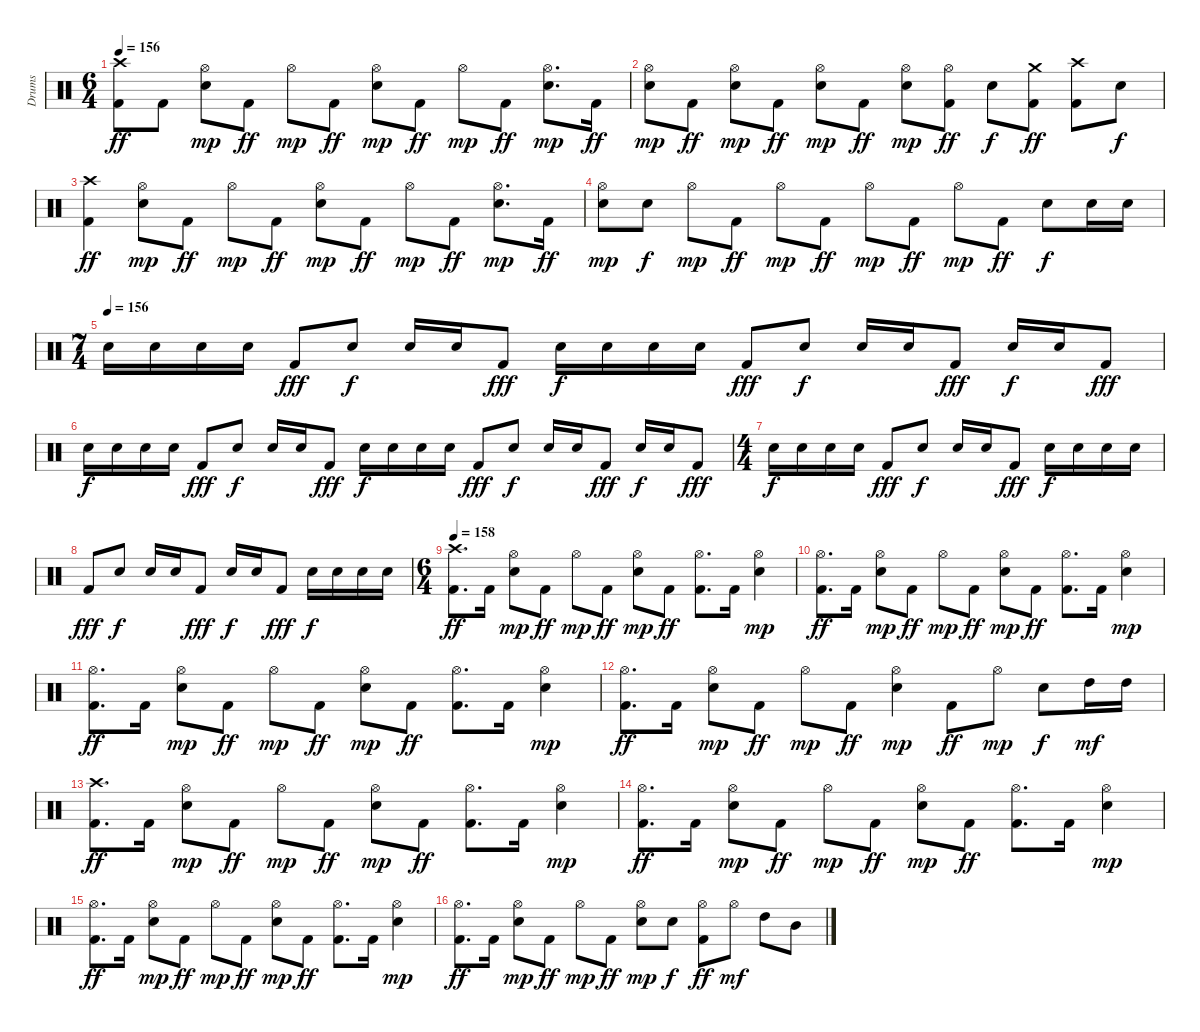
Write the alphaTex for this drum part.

\track ("Drums" "Drums") {instrument percussion}
\staff {score}
\articulation defaults
\ts (6 4)
\tempo 156
\clef neutral
\ks c
("Crash high (hit)" "Kick (hit) 2").8{dy ff} "Kick (hit) 2".8 ("Hi-Hat (open)" "Electric Snare (hit)").8{dy mp} "Kick (hit) 2".8{dy ff} "Hi-Hat (open)".8{dy mp} "Kick (hit) 2".8{dy ff} ("Hi-Hat (open)" "Electric Snare (hit)").8{dy mp} "Kick (hit) 2".8{dy ff} "Hi-Hat (open)".8{dy mp} "Kick (hit) 2".8{dy ff} ("Hi-Hat (open)" "Electric Snare (hit)").8{d dy mp} "Kick (hit) 2".16{dy ff} |
("Hi-Hat (open)" "Electric Snare (hit)").8{dy mp} "Kick (hit) 2".8{dy ff} ("Hi-Hat (open)" "Electric Snare (hit)").8{dy mp} "Kick (hit) 2".8{dy ff} ("Hi-Hat (open)" "Electric Snare (hit)").8{dy mp} "Kick (hit) 2".8{dy ff} ("Hi-Hat (open)" "Electric Snare (hit)").8{dy mp} ("Hi-Hat (open)" "Kick (hit) 2").8{dy ff} "Electric Snare (hit)".8{dy f} ("Crash medium (hit)" "Kick (hit) 2").8{dy ff} ("Crash high (hit)" "Kick (hit) 2").8 "Electric Snare (hit)".8{dy f} |
("Crash high (hit)" "Kick (hit) 2").4{dy ff} ("Hi-Hat (open)" "Electric Snare (hit)").8{dy mp} "Kick (hit) 2".8{dy ff} "Hi-Hat (open)".8{dy mp} "Kick (hit) 2".8{dy ff} ("Hi-Hat (open)" "Electric Snare (hit)").8{dy mp} "Kick (hit) 2".8{dy ff} "Hi-Hat (open)".8{dy mp} "Kick (hit) 2".8{dy ff} ("Hi-Hat (open)" "Electric Snare (hit)").8{d dy mp} "Kick (hit) 2".16{dy ff} |
("Hi-Hat (open)" "Electric Snare (hit)").8{dy mp} "Electric Snare (hit)".8{dy f} "Hi-Hat (open)".8{dy mp} "Kick (hit) 2".8{dy ff} "Hi-Hat (open)".8{dy mp} "Kick (hit) 2".8{dy ff} "Hi-Hat (open)".8{dy mp} "Kick (hit) 2".8{dy ff} "Hi-Hat (open)".8{dy mp} "Kick (hit) 2".8{dy ff} "Electric Snare (hit)".8{dy f} "Electric Snare (hit)".16 "Electric Snare (hit)".16 |
\ts (7 4)
\tempo (156)
"Electric Snare (hit)".16 "Electric Snare (hit)".16 "Electric Snare (hit)".16 "Electric Snare (hit)".16 "Kick (hit) 2".8{dy fff} "Electric Snare (hit)".8{dy f} "Electric Snare (hit)".16 "Electric Snare (hit)".16 "Kick (hit) 2".8{dy fff} "Electric Snare (hit)".16{dy f} "Electric Snare (hit)".16 "Electric Snare (hit)".16 "Electric Snare (hit)".16 "Kick (hit) 2".8{dy fff} "Electric Snare (hit)".8{dy f} "Electric Snare (hit)".16 "Electric Snare (hit)".16 "Kick (hit) 2".8{dy fff} "Electric Snare (hit)".16{dy f} "Electric Snare (hit)".16 "Kick (hit) 2".8{dy fff} |
"Electric Snare (hit)".16{dy f} "Electric Snare (hit)".16 "Electric Snare (hit)".16 "Electric Snare (hit)".16 "Kick (hit) 2".8{dy fff} "Electric Snare (hit)".8{dy f} "Electric Snare (hit)".16 "Electric Snare (hit)".16 "Kick (hit) 2".8{dy fff} "Electric Snare (hit)".16{dy f} "Electric Snare (hit)".16 "Electric Snare (hit)".16 "Electric Snare (hit)".16 "Kick (hit) 2".8{dy fff} "Electric Snare (hit)".8{dy f} "Electric Snare (hit)".16 "Electric Snare (hit)".16 "Kick (hit) 2".8{dy fff} "Electric Snare (hit)".16{dy f} "Electric Snare (hit)".16 "Kick (hit) 2".8{dy fff} |
\ts (4 4)
"Electric Snare (hit)".16{dy f} "Electric Snare (hit)".16 "Electric Snare (hit)".16 "Electric Snare (hit)".16 "Kick (hit) 2".8{dy fff} "Electric Snare (hit)".8{dy f} "Electric Snare (hit)".16 "Electric Snare (hit)".16 "Kick (hit) 2".8{dy fff} "Electric Snare (hit)".16{dy f} "Electric Snare (hit)".16 "Electric Snare (hit)".16 "Electric Snare (hit)".16 |
"Kick (hit) 2".8{dy fff} "Electric Snare (hit)".8{dy f} "Electric Snare (hit)".16 "Electric Snare (hit)".16 "Kick (hit) 2".8{dy fff} "Electric Snare (hit)".16{dy f} "Electric Snare (hit)".16 "Kick (hit) 2".8{dy fff} "Electric Snare (hit)".16{dy f} "Electric Snare (hit)".16 "Electric Snare (hit)".16 "Electric Snare (hit)".16 |
\ts (6 4)
\tempo 158
("Crash high (hit)" "Kick (hit) 2").8{d dy ff} "Kick (hit) 2".16 ("Hi-Hat (open)" "Electric Snare (hit)").8{dy mp} "Kick (hit) 2".8{dy ff} "Hi-Hat (open)".8{dy mp} "Kick (hit) 2".8{dy ff} ("Hi-Hat (open)" "Electric Snare (hit)").8{dy mp} "Kick (hit) 2".8{dy ff} ("Hi-Hat (open)" "Kick (hit) 2").8{d} "Kick (hit) 2".16 ("Hi-Hat (open)" "Electric Snare (hit)").4{dy mp} |
("Hi-Hat (open)" "Kick (hit) 2").8{d dy ff} "Kick (hit) 2".16 ("Hi-Hat (open)" "Electric Snare (hit)").8{dy mp} "Kick (hit) 2".8{dy ff} "Hi-Hat (open)".8{dy mp} "Kick (hit) 2".8{dy ff} ("Hi-Hat (open)" "Electric Snare (hit)").8{dy mp} "Kick (hit) 2".8{dy ff} ("Hi-Hat (open)" "Kick (hit) 2").8{d} "Kick (hit) 2".16 ("Hi-Hat (open)" "Electric Snare (hit)").4{dy mp} |
("Hi-Hat (open)" "Kick (hit) 2").8{d dy ff} "Kick (hit) 2".16 ("Hi-Hat (open)" "Electric Snare (hit)").8{dy mp} "Kick (hit) 2".8{dy ff} "Hi-Hat (open)".8{dy mp} "Kick (hit) 2".8{dy ff} ("Hi-Hat (open)" "Electric Snare (hit)").8{dy mp} "Kick (hit) 2".8{dy ff} ("Hi-Hat (open)" "Kick (hit) 2").8{d} "Kick (hit) 2".16 ("Hi-Hat (open)" "Electric Snare (hit)").4{dy mp} |
("Hi-Hat (open)" "Kick (hit) 2").8{d dy ff} "Kick (hit) 2".16 ("Hi-Hat (open)" "Electric Snare (hit)").8{dy mp} "Kick (hit) 2".8{dy ff} "Hi-Hat (open)".8{dy mp} "Kick (hit) 2".8{dy ff} ("Hi-Hat (open)" "Electric Snare (hit)").4{dy mp} "Kick (hit) 2".8{dy ff} "Hi-Hat (open)".8{dy mp} "Electric Snare (hit)".8{dy f} "High Tom (hit)".16{dy mf} "High Tom (hit)".16 |
("Crash high (hit)" "Kick (hit) 2").8{d dy ff} "Kick (hit) 2".16 ("Hi-Hat (open)" "Electric Snare (hit)").8{dy mp} "Kick (hit) 2".8{dy ff} "Hi-Hat (open)".8{dy mp} "Kick (hit) 2".8{dy ff} ("Hi-Hat (open)" "Electric Snare (hit)").8{dy mp} "Kick (hit) 2".8{dy ff} ("Hi-Hat (open)" "Kick (hit) 2").8{d} "Kick (hit) 2".16 ("Hi-Hat (open)" "Electric Snare (hit)").4{dy mp} |
("Hi-Hat (open)" "Kick (hit) 2").8{d dy ff} "Kick (hit) 2".16 ("Hi-Hat (open)" "Electric Snare (hit)").8{dy mp} "Kick (hit) 2".8{dy ff} "Hi-Hat (open)".8{dy mp} "Kick (hit) 2".8{dy ff} ("Hi-Hat (open)" "Electric Snare (hit)").8{dy mp} "Kick (hit) 2".8{dy ff} ("Hi-Hat (open)" "Kick (hit) 2").8{d} "Kick (hit) 2".16 ("Hi-Hat (open)" "Electric Snare (hit)").4{dy mp} |
("Hi-Hat (open)" "Kick (hit) 2").8{d dy ff} "Kick (hit) 2".16 ("Hi-Hat (open)" "Electric Snare (hit)").8{dy mp} "Kick (hit) 2".8{dy ff} "Hi-Hat (open)".8{dy mp} "Kick (hit) 2".8{dy ff} ("Hi-Hat (open)" "Electric Snare (hit)").8{dy mp} "Kick (hit) 2".8{dy ff} ("Hi-Hat (open)" "Kick (hit) 2").8{d} "Kick (hit) 2".16 ("Hi-Hat (open)" "Electric Snare (hit)").4{dy mp} |
("Hi-Hat (open)" "Kick (hit) 2").8{d dy ff} "Kick (hit) 2".16 ("Hi-Hat (open)" "Electric Snare (hit)").8{dy mp} "Kick (hit) 2".8{dy ff} "Hi-Hat (open)".8{dy mp} "Kick (hit) 2".8{dy ff} ("Hi-Hat (open)" "Electric Snare (hit)").8{dy mp} "Electric Snare (hit)".8{dy f} ("Hi-Hat (open)" "Kick (hit) 2").8{dy ff} "Hi-Hat (open)".8{dy mf} "High Tom (hit)".8 "Mid Tom (hit)".8
